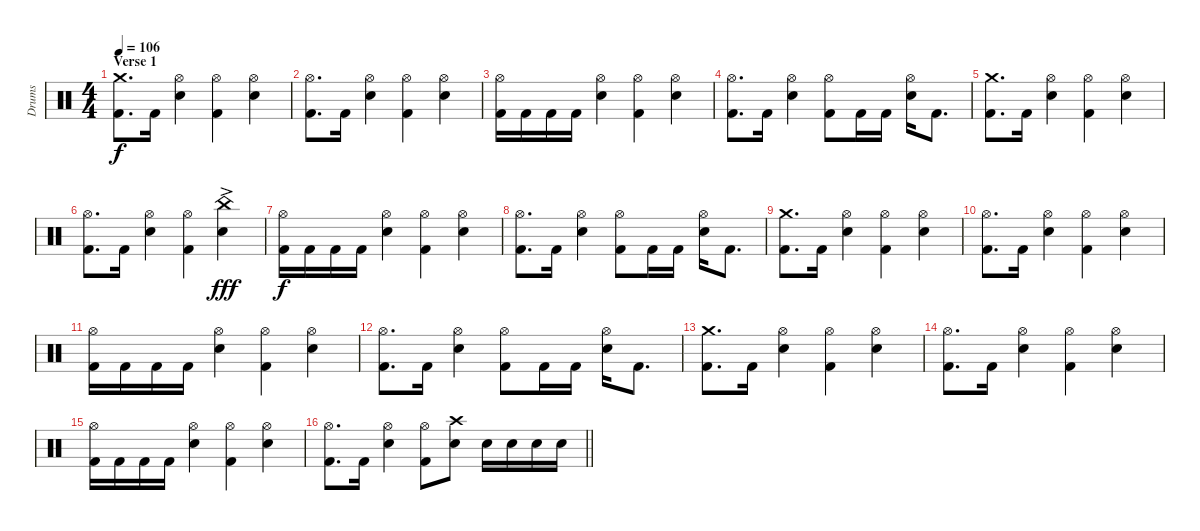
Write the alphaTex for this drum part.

\track ("Drums" "Drums") {instrument percussion}
\staff {score}
\articulation defaults
\ts (4 4)
\section ("" "Verse 1")
\tempo 106
\clef neutral
\ks c
("Crash medium (hit)" "Kick (hit) 2").8{d dy f} "Kick (hit) 2".16 ("Hi-Hat (open)" "Electric Snare (hit)").4 ("Hi-Hat (open)" "Kick (hit) 2").4 ("Hi-Hat (open)" "Electric Snare (hit)").4 |
("Hi-Hat (open)" "Kick (hit) 2").8{d} "Kick (hit) 2".16 ("Hi-Hat (open)" "Electric Snare (hit)").4 ("Hi-Hat (open)" "Kick (hit) 2").4 ("Hi-Hat (open)" "Electric Snare (hit)").4 |
("Hi-Hat (open)" "Kick (hit) 2").16 "Kick (hit) 2".16 "Kick (hit) 2".16 "Kick (hit) 2".16 ("Hi-Hat (open)" "Electric Snare (hit)").4 ("Hi-Hat (open)" "Kick (hit) 2").4 ("Hi-Hat (open)" "Electric Snare (hit)").4 |
("Hi-Hat (open)" "Kick (hit) 2").8{d} "Kick (hit) 2".16 ("Hi-Hat (open)" "Electric Snare (hit)").4 ("Hi-Hat (open)" "Kick (hit) 2").8 "Kick (hit) 2".16 "Kick (hit) 2".16 ("Hi-Hat (open)" "Electric Snare (hit)").16 "Kick (hit) 2".8{d} |
("Crash medium (hit)" "Kick (hit) 2").8{d} "Kick (hit) 2".16 ("Hi-Hat (open)" "Electric Snare (hit)").4 ("Hi-Hat (open)" "Kick (hit) 2").4 ("Hi-Hat (open)" "Electric Snare (hit)").4 |
("Hi-Hat (open)" "Kick (hit) 2").8{d} "Kick (hit) 2".16 ("Hi-Hat (open)" "Electric Snare (hit)").4 ("Hi-Hat (open)" "Kick (hit) 2").4 ("China (hit)"{ac} "Electric Snare (hit)"{ac}).4{dy fff} |
("Hi-Hat (open)" "Kick (hit) 2").16{dy f} "Kick (hit) 2".16 "Kick (hit) 2".16 "Kick (hit) 2".16 ("Hi-Hat (open)" "Electric Snare (hit)").4 ("Hi-Hat (open)" "Kick (hit) 2").4 ("Hi-Hat (open)" "Electric Snare (hit)").4 |
("Hi-Hat (open)" "Kick (hit) 2").8{d} "Kick (hit) 2".16 ("Hi-Hat (open)" "Electric Snare (hit)").4 ("Hi-Hat (open)" "Kick (hit) 2").8 "Kick (hit) 2".16 "Kick (hit) 2".16 ("Hi-Hat (open)" "Electric Snare (hit)").16 "Kick (hit) 2".8{d} |
("Crash medium (hit)" "Kick (hit) 2").8{d} "Kick (hit) 2".16 ("Hi-Hat (open)" "Electric Snare (hit)").4 ("Hi-Hat (open)" "Kick (hit) 2").4 ("Hi-Hat (open)" "Electric Snare (hit)").4 |
("Hi-Hat (open)" "Kick (hit) 2").8{d} "Kick (hit) 2".16 ("Hi-Hat (open)" "Electric Snare (hit)").4 ("Hi-Hat (open)" "Kick (hit) 2").4 ("Hi-Hat (open)" "Electric Snare (hit)").4 |
("Hi-Hat (open)" "Kick (hit) 2").16 "Kick (hit) 2".16 "Kick (hit) 2".16 "Kick (hit) 2".16 ("Hi-Hat (open)" "Electric Snare (hit)").4 ("Hi-Hat (open)" "Kick (hit) 2").4 ("Hi-Hat (open)" "Electric Snare (hit)").4 |
("Hi-Hat (open)" "Kick (hit) 2").8{d} "Kick (hit) 2".16 ("Hi-Hat (open)" "Electric Snare (hit)").4 ("Hi-Hat (open)" "Kick (hit) 2").8 "Kick (hit) 2".16 "Kick (hit) 2".16 ("Hi-Hat (open)" "Electric Snare (hit)").16 "Kick (hit) 2".8{d} |
("Crash medium (hit)" "Kick (hit) 2").8{d} "Kick (hit) 2".16 ("Hi-Hat (open)" "Electric Snare (hit)").4 ("Hi-Hat (open)" "Kick (hit) 2").4 ("Hi-Hat (open)" "Electric Snare (hit)").4 |
("Hi-Hat (open)" "Kick (hit) 2").8{d} "Kick (hit) 2".16 ("Hi-Hat (open)" "Electric Snare (hit)").4 ("Hi-Hat (open)" "Kick (hit) 2").4 ("Hi-Hat (open)" "Electric Snare (hit)").4 |
("Hi-Hat (open)" "Kick (hit) 2").16 "Kick (hit) 2".16 "Kick (hit) 2".16 "Kick (hit) 2".16 ("Hi-Hat (open)" "Electric Snare (hit)").4 ("Hi-Hat (open)" "Kick (hit) 2").4 ("Hi-Hat (open)" "Electric Snare (hit)").4 |
\barLineRight lightlight
("Hi-Hat (open)" "Kick (hit) 2").8{d} "Kick (hit) 2".16 ("Hi-Hat (open)" "Electric Snare (hit)").4 ("Hi-Hat (open)" "Kick (hit) 2").8 ("Crash high (hit)" "Electric Snare (hit)").8 "Electric Snare (hit)".16 "Electric Snare (hit)".16 "Electric Snare (hit)".16 "Electric Snare (hit)".16
